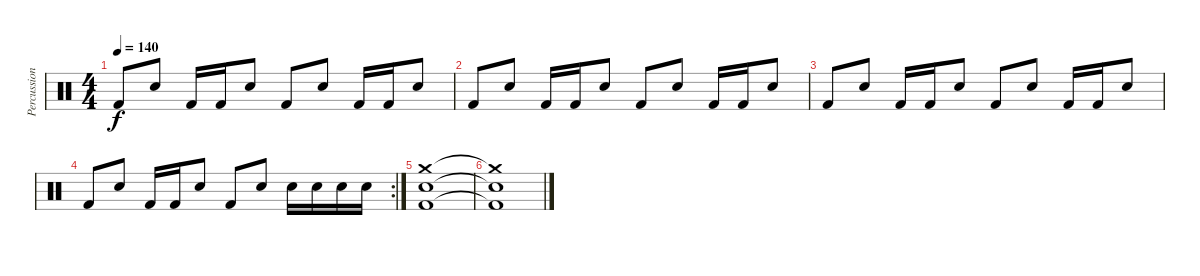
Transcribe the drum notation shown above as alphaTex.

\track ("Percussion" "Percussion") {instrument percussion}
\staff {score}
\articulation defaults
\ts (4 4)
\tempo 140
\clef neutral
\ks c "Kick (hit) 2".8{dy f} "Snare (hit) 2".8 "Kick (hit) 2".16 "Kick (hit) 2".16 "Snare (hit) 2".8 "Kick (hit) 2".8 "Snare (hit) 2".8 "Kick (hit) 2".16 "Kick (hit) 2".16 "Snare (hit) 2".8
|
"Kick (hit) 2".8 "Snare (hit) 2".8 "Kick (hit) 2".16 "Kick (hit) 2".16 "Snare (hit) 2".8 "Kick (hit) 2".8 "Snare (hit) 2".8 "Kick (hit) 2".16 "Kick (hit) 2".16 "Snare (hit) 2".8 |
"Kick (hit) 2".8 "Snare (hit) 2".8 "Kick (hit) 2".16 "Kick (hit) 2".16 "Snare (hit) 2".8 "Kick (hit) 2".8 "Snare (hit) 2".8 "Kick (hit) 2".16 "Kick (hit) 2".16 "Snare (hit) 2".8 |
\rc 2 "Kick (hit) 2".8 "Snare (hit) 2".8 "Kick (hit) 2".16 "Kick (hit) 2".16 "Snare (hit) 2".8 "Kick (hit) 2".8 "Snare (hit) 2".8 "Snare (hit) 2".16 "Snare (hit) 2".16 "Snare (hit) 2".16 "Snare (hit) 2".16
|
("Kick (hit) 2" "Snare (hit) 2" "Crash medium (hit)").1 |
("Kick (hit) 2"{t} "Snare (hit) 2"{t} "Crash medium (hit)"{t}).1
